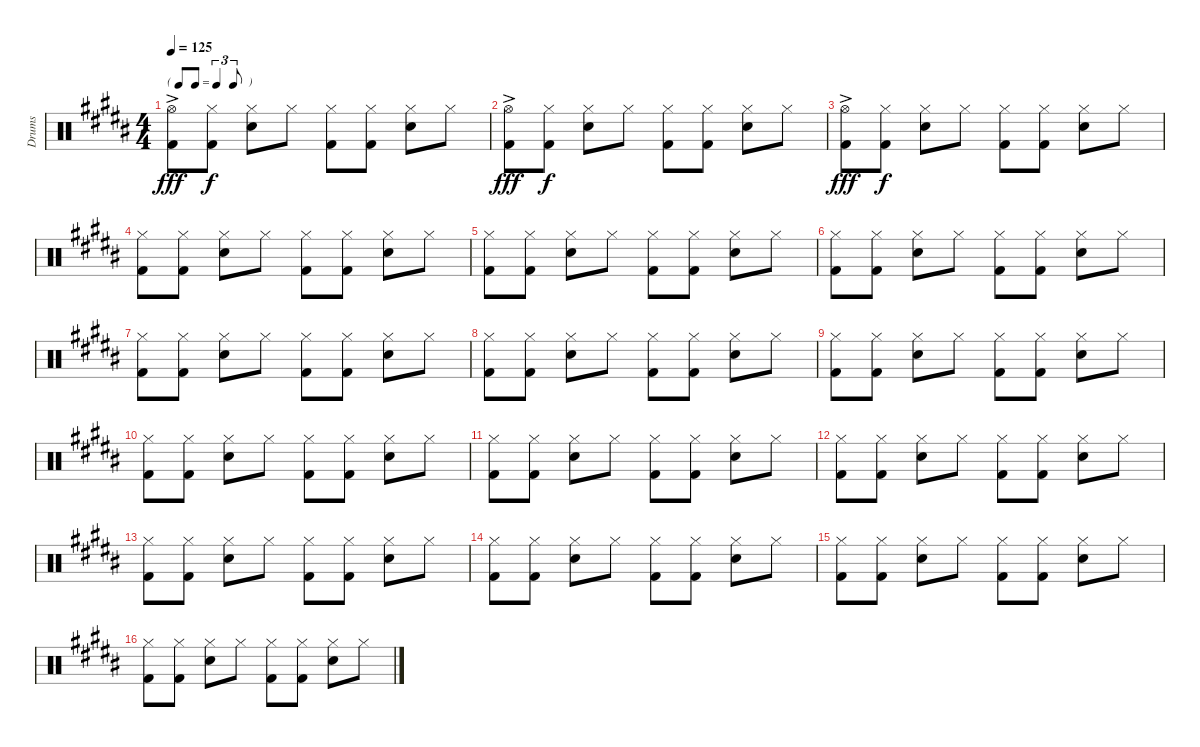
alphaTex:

\track ("Drums" "Drums") {instrument percussion}
\staff {score}
\articulation defaults
\ts (4 4)
\tf triplet8th
\tempo 125
\clef neutral
\ks b
("Hi-Hat (open)"{ac} "Kick (hit) 2"{ac}).8{dy fff} ("Hi-Hat (closed)" "Kick (hit) 2").8{dy f} ("Hi-Hat (closed)" "Snare (hit) 2").8 "Hi-Hat (closed)".8 ("Hi-Hat (closed)" "Kick (hit) 2").8 ("Hi-Hat (closed)" "Kick (hit) 2").8 ("Hi-Hat (closed)" "Snare (hit) 2").8 "Hi-Hat (closed)".8 |
("Hi-Hat (open)"{ac} "Kick (hit) 2"{ac}).8{dy fff} ("Hi-Hat (closed)" "Kick (hit) 2").8{dy f} ("Hi-Hat (closed)" "Snare (hit) 2").8 "Hi-Hat (closed)".8 ("Hi-Hat (closed)" "Kick (hit) 2").8 ("Hi-Hat (closed)" "Kick (hit) 2").8 ("Hi-Hat (closed)" "Snare (hit) 2").8 "Hi-Hat (closed)".8 |
("Hi-Hat (open)"{ac} "Kick (hit) 2"{ac}).8{dy fff} ("Hi-Hat (closed)" "Kick (hit) 2").8{dy f} ("Hi-Hat (closed)" "Snare (hit) 2").8 "Hi-Hat (closed)".8 ("Hi-Hat (closed)" "Kick (hit) 2").8 ("Hi-Hat (closed)" "Kick (hit) 2").8 ("Hi-Hat (closed)" "Snare (hit) 2").8 "Hi-Hat (closed)".8 |
("Hi-Hat (closed)" "Kick (hit) 2").8 ("Hi-Hat (closed)" "Kick (hit) 2").8 ("Hi-Hat (closed)" "Snare (hit) 2").8 "Hi-Hat (closed)".8 ("Hi-Hat (closed)" "Kick (hit) 2").8 ("Hi-Hat (closed)" "Kick (hit) 2").8 ("Hi-Hat (closed)" "Snare (hit) 2").8 "Hi-Hat (closed)".8 |
("Hi-Hat (closed)" "Kick (hit) 2").8 ("Hi-Hat (closed)" "Kick (hit) 2").8 ("Hi-Hat (closed)" "Snare (hit) 2").8 "Hi-Hat (closed)".8 ("Hi-Hat (closed)" "Kick (hit) 2").8 ("Hi-Hat (closed)" "Kick (hit) 2").8 ("Hi-Hat (closed)" "Snare (hit) 2").8 "Hi-Hat (closed)".8 |
("Hi-Hat (closed)" "Kick (hit) 2").8 ("Hi-Hat (closed)" "Kick (hit) 2").8 ("Hi-Hat (closed)" "Snare (hit) 2").8 "Hi-Hat (closed)".8 ("Hi-Hat (closed)" "Kick (hit) 2").8 ("Hi-Hat (closed)" "Kick (hit) 2").8 ("Hi-Hat (closed)" "Snare (hit) 2").8 "Hi-Hat (closed)".8 |
("Hi-Hat (closed)" "Kick (hit) 2").8 ("Hi-Hat (closed)" "Kick (hit) 2").8 ("Hi-Hat (closed)" "Snare (hit) 2").8 "Hi-Hat (closed)".8 ("Hi-Hat (closed)" "Kick (hit) 2").8 ("Hi-Hat (closed)" "Kick (hit) 2").8 ("Hi-Hat (closed)" "Snare (hit) 2").8 "Hi-Hat (closed)".8 |
("Hi-Hat (closed)" "Kick (hit) 2").8 ("Hi-Hat (closed)" "Kick (hit) 2").8 ("Hi-Hat (closed)" "Snare (hit) 2").8 "Hi-Hat (closed)".8 ("Hi-Hat (closed)" "Kick (hit) 2").8 ("Hi-Hat (closed)" "Kick (hit) 2").8 ("Hi-Hat (closed)" "Snare (hit) 2").8 "Hi-Hat (closed)".8 |
("Hi-Hat (closed)" "Kick (hit) 2").8 ("Hi-Hat (closed)" "Kick (hit) 2").8 ("Hi-Hat (closed)" "Snare (hit) 2").8 "Hi-Hat (closed)".8 ("Hi-Hat (closed)" "Kick (hit) 2").8 ("Hi-Hat (closed)" "Kick (hit) 2").8 ("Hi-Hat (closed)" "Snare (hit) 2").8 "Hi-Hat (closed)".8 |
("Hi-Hat (closed)" "Kick (hit) 2").8 ("Hi-Hat (closed)" "Kick (hit) 2").8 ("Hi-Hat (closed)" "Snare (hit) 2").8 "Hi-Hat (closed)".8 ("Hi-Hat (closed)" "Kick (hit) 2").8 ("Hi-Hat (closed)" "Kick (hit) 2").8 ("Hi-Hat (closed)" "Snare (hit) 2").8 "Hi-Hat (closed)".8 |
("Hi-Hat (closed)" "Kick (hit) 2").8 ("Hi-Hat (closed)" "Kick (hit) 2").8 ("Hi-Hat (closed)" "Snare (hit) 2").8 "Hi-Hat (closed)".8 ("Hi-Hat (closed)" "Kick (hit) 2").8 ("Hi-Hat (closed)" "Kick (hit) 2").8 ("Hi-Hat (closed)" "Snare (hit) 2").8 "Hi-Hat (closed)".8 |
("Hi-Hat (closed)" "Kick (hit) 2").8 ("Hi-Hat (closed)" "Kick (hit) 2").8 ("Hi-Hat (closed)" "Snare (hit) 2").8 "Hi-Hat (closed)".8 ("Hi-Hat (closed)" "Kick (hit) 2").8 ("Hi-Hat (closed)" "Kick (hit) 2").8 ("Hi-Hat (closed)" "Snare (hit) 2").8 "Hi-Hat (closed)".8 |
("Hi-Hat (closed)" "Kick (hit) 2").8 ("Hi-Hat (closed)" "Kick (hit) 2").8 ("Hi-Hat (closed)" "Snare (hit) 2").8 "Hi-Hat (closed)".8 ("Hi-Hat (closed)" "Kick (hit) 2").8 ("Hi-Hat (closed)" "Kick (hit) 2").8 ("Hi-Hat (closed)" "Snare (hit) 2").8 "Hi-Hat (closed)".8 |
("Hi-Hat (closed)" "Kick (hit) 2").8 ("Hi-Hat (closed)" "Kick (hit) 2").8 ("Hi-Hat (closed)" "Snare (hit) 2").8 "Hi-Hat (closed)".8 ("Hi-Hat (closed)" "Kick (hit) 2").8 ("Hi-Hat (closed)" "Kick (hit) 2").8 ("Hi-Hat (closed)" "Snare (hit) 2").8 "Hi-Hat (closed)".8 |
("Hi-Hat (closed)" "Kick (hit) 2").8 ("Hi-Hat (closed)" "Kick (hit) 2").8 ("Hi-Hat (closed)" "Snare (hit) 2").8 "Hi-Hat (closed)".8 ("Hi-Hat (closed)" "Kick (hit) 2").8 ("Hi-Hat (closed)" "Kick (hit) 2").8 ("Hi-Hat (closed)" "Snare (hit) 2").8 "Hi-Hat (closed)".8 |
("Hi-Hat (closed)" "Kick (hit) 2").8 ("Hi-Hat (closed)" "Kick (hit) 2").8 ("Hi-Hat (closed)" "Snare (hit) 2").8 "Hi-Hat (closed)".8 ("Hi-Hat (closed)" "Kick (hit) 2").8 ("Hi-Hat (closed)" "Kick (hit) 2").8 ("Hi-Hat (closed)" "Snare (hit) 2").8 "Hi-Hat (closed)".8
